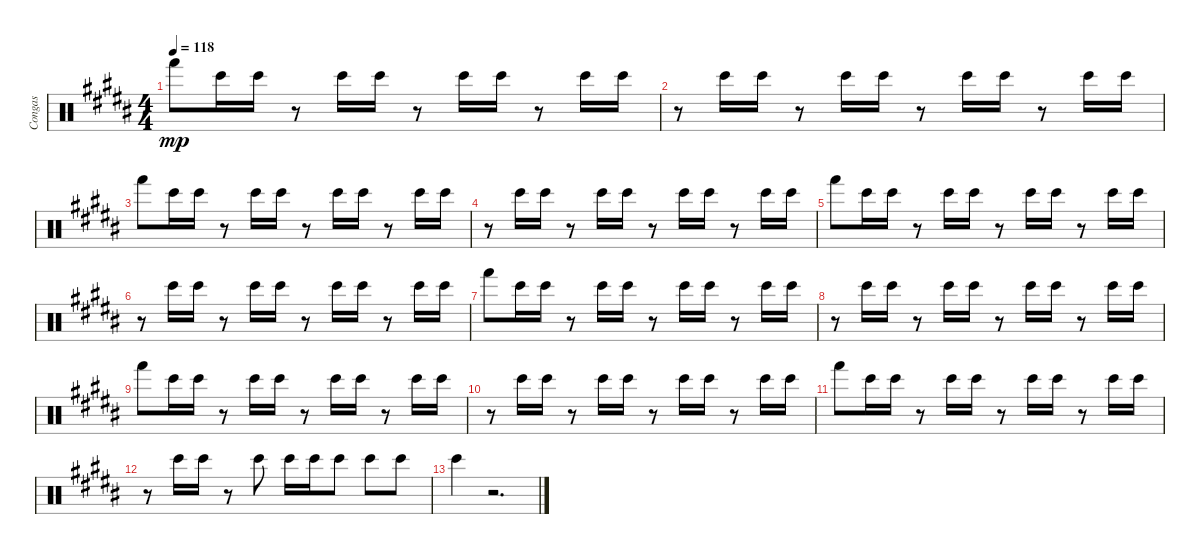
\track ("Congas" "Congas") {instrument percussion}
\staff {score}
\articulation defaults
\ts (4 4)
\tempo 118
\clef neutral
\ks b "Hand (hit)".8{dy mp} "Bongo High (hit)".16 "Bongo High (hit)".16
r.8 "Bongo High (hit)".16 "Bongo High (hit)".16 r.8 "Bongo High (hit)".16 "Bongo High (hit)".16 r.8 "Bongo High (hit)".16 "Bongo High (hit)".16 |
r.8 "Bongo High (hit)".16 "Bongo High (hit)".16 r.8 "Bongo High (hit)".16 "Bongo High (hit)".16 r.8 "Bongo High (hit)".16 "Bongo High (hit)".16 r.8 "Bongo High (hit)".16 "Bongo High (hit)".16 |
"Hand (hit)".8 "Bongo High (hit)".16 "Bongo High (hit)".16 r.8 "Bongo High (hit)".16 "Bongo High (hit)".16 r.8 "Bongo High (hit)".16 "Bongo High (hit)".16 r.8 "Bongo High (hit)".16 "Bongo High (hit)".16 |
r.8 "Bongo High (hit)".16 "Bongo High (hit)".16 r.8 "Bongo High (hit)".16 "Bongo High (hit)".16 r.8 "Bongo High (hit)".16 "Bongo High (hit)".16 r.8 "Bongo High (hit)".16 "Bongo High (hit)".16 |
"Hand (hit)".8 "Bongo High (hit)".16 "Bongo High (hit)".16 r.8 "Bongo High (hit)".16 "Bongo High (hit)".16 r.8 "Bongo High (hit)".16 "Bongo High (hit)".16 r.8 "Bongo High (hit)".16 "Bongo High (hit)".16 |
r.8 "Bongo High (hit)".16 "Bongo High (hit)".16 r.8 "Bongo High (hit)".16 "Bongo High (hit)".16 r.8 "Bongo High (hit)".16 "Bongo High (hit)".16 r.8 "Bongo High (hit)".16 "Bongo High (hit)".16 |
"Hand (hit)".8 "Bongo High (hit)".16 "Bongo High (hit)".16 r.8 "Bongo High (hit)".16 "Bongo High (hit)".16 r.8 "Bongo High (hit)".16 "Bongo High (hit)".16 r.8 "Bongo High (hit)".16 "Bongo High (hit)".16 |
r.8 "Bongo High (hit)".16 "Bongo High (hit)".16 r.8 "Bongo High (hit)".16 "Bongo High (hit)".16 r.8 "Bongo High (hit)".16 "Bongo High (hit)".16 r.8 "Bongo High (hit)".16 "Bongo High (hit)".16 |
"Hand (hit)".8 "Bongo High (hit)".16 "Bongo High (hit)".16 r.8 "Bongo High (hit)".16 "Bongo High (hit)".16 r.8 "Bongo High (hit)".16 "Bongo High (hit)".16 r.8 "Bongo High (hit)".16 "Bongo High (hit)".16 |
r.8 "Bongo High (hit)".16 "Bongo High (hit)".16 r.8 "Bongo High (hit)".16 "Bongo High (hit)".16 r.8 "Bongo High (hit)".16 "Bongo High (hit)".16 r.8 "Bongo High (hit)".16 "Bongo High (hit)".16 |
"Hand (hit)".8 "Bongo High (hit)".16 "Bongo High (hit)".16 r.8 "Bongo High (hit)".16 "Bongo High (hit)".16 r.8 "Bongo High (hit)".16 "Bongo High (hit)".16 r.8 "Bongo High (hit)".16 "Bongo High (hit)".16 |
r.8 "Bongo High (hit)".16 "Bongo High (hit)".16 r.8 "Bongo High (hit)".8 "Bongo High (hit)".16 "Bongo High (hit)".16 "Bongo High (hit)".8 "Bongo High (hit)".8 "Bongo High (hit)".8 |
"Bongo High (hit)".4 r.2{d}
